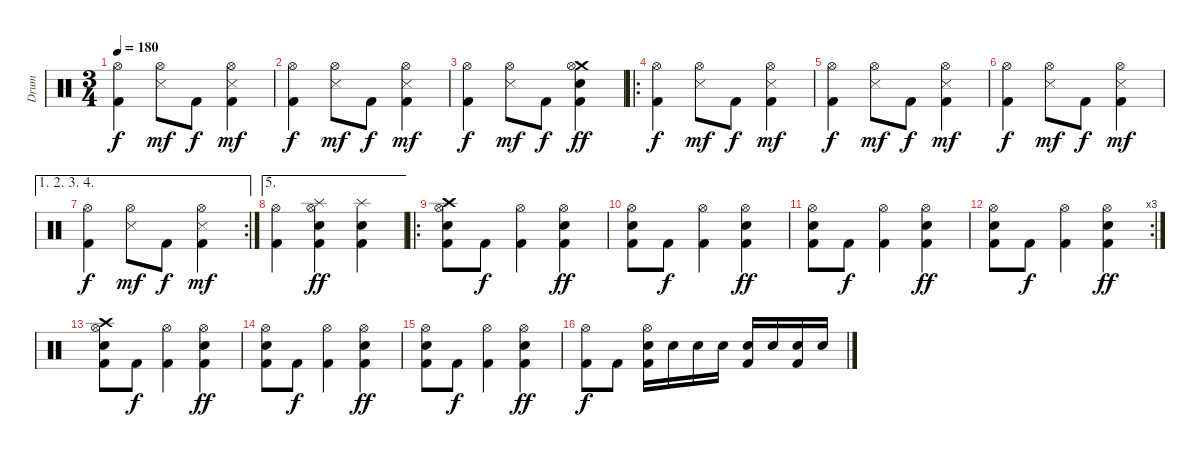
\track ("Drum" "Drum") {instrument percussion}
\staff {score}
\articulation defaults
\ts (3 4)
\tempo 180
\clef neutral
\ks c
("Hi-Hat (open)" "Kick (hit) 2").4{dy f} ("Hi-Hat (open)" "Snare (side stick) 3").8{dy mf} "Kick (hit) 2".8{dy f} ("Hi-Hat (open)" "Snare (side stick) 3" "Kick (hit) 2").4{dy mf} |
("Hi-Hat (open)" "Kick (hit) 2").4{dy f} ("Hi-Hat (open)" "Snare (side stick) 3").8{dy mf} "Kick (hit) 2".8{dy f} ("Hi-Hat (open)" "Snare (side stick) 3" "Kick (hit) 2").4{dy mf} |
("Hi-Hat (open)" "Kick (hit) 2").4{dy f} ("Hi-Hat (open)" "Snare (side stick) 3").8{dy mf} "Kick (hit) 2".8{dy f} ("Crash medium (hit)" "Hi-Hat (open)" "Electric Snare (hit)" "Kick (hit) 2").4{dy ff} |
\ro
("Hi-Hat (open)" "Kick (hit) 2").4{dy f} ("Hi-Hat (open)" "Snare (side stick) 3").8{dy mf} "Kick (hit) 2".8{dy f} ("Hi-Hat (open)" "Snare (side stick) 3" "Kick (hit) 2").4{dy mf} |
("Hi-Hat (open)" "Kick (hit) 2").4{dy f} ("Hi-Hat (open)" "Snare (side stick) 3").8{dy mf} "Kick (hit) 2".8{dy f} ("Hi-Hat (open)" "Snare (side stick) 3" "Kick (hit) 2").4{dy mf} |
("Hi-Hat (open)" "Kick (hit) 2").4{dy f} ("Hi-Hat (open)" "Snare (side stick) 3").8{dy mf} "Kick (hit) 2".8{dy f} ("Hi-Hat (open)" "Snare (side stick) 3" "Kick (hit) 2").4{dy mf} |
\ae (1 2 3 4)
\rc 2
("Hi-Hat (open)" "Kick (hit) 2").4{dy f} ("Hi-Hat (open)" "Snare (side stick) 3").8{dy mf} "Kick (hit) 2".8{dy f} ("Hi-Hat (open)" "Snare (side stick) 3" "Kick (hit) 2").4{dy mf} |
\ae 5
("Hi-Hat (open)" "Kick (hit) 2").4 ("Splash (hit)" "Hi-Hat (open)" "Electric Snare (hit)" "Kick (hit) 2").4{dy ff} ("Splash (hit)" "Electric Snare (hit)" "Kick (hit) 2").4 |
\ro
("Crash high (hit)" "Hi-Hat (open)" "Electric Snare (hit)" "Kick (hit) 2").8 "Kick (hit) 2".8{dy f} ("Hi-Hat (open)" "Kick (hit) 2").4 ("Hi-Hat (open)" "Electric Snare (hit)" "Kick (hit) 2").4{dy ff} |
("Hi-Hat (open)" "Electric Snare (hit)" "Kick (hit) 2").8 "Kick (hit) 2".8{dy f} ("Hi-Hat (open)" "Kick (hit) 2").4 ("Hi-Hat (open)" "Electric Snare (hit)" "Kick (hit) 2").4{dy ff} |
("Hi-Hat (open)" "Electric Snare (hit)" "Kick (hit) 2").8 "Kick (hit) 2".8{dy f} ("Hi-Hat (open)" "Kick (hit) 2").4 ("Hi-Hat (open)" "Electric Snare (hit)" "Kick (hit) 2").4{dy ff} |
\rc 3
("Hi-Hat (open)" "Electric Snare (hit)" "Kick (hit) 2").8 "Kick (hit) 2".8{dy f} ("Hi-Hat (open)" "Kick (hit) 2").4 ("Hi-Hat (open)" "Electric Snare (hit)" "Kick (hit) 2").4{dy ff} |
("Crash high (hit)" "Hi-Hat (open)" "Electric Snare (hit)" "Kick (hit) 2").8 "Kick (hit) 2".8{dy f} ("Hi-Hat (open)" "Kick (hit) 2").4 ("Hi-Hat (open)" "Electric Snare (hit)" "Kick (hit) 2").4{dy ff} |
("Hi-Hat (open)" "Electric Snare (hit)" "Kick (hit) 2").8 "Kick (hit) 2".8{dy f} ("Hi-Hat (open)" "Kick (hit) 2").4 ("Hi-Hat (open)" "Electric Snare (hit)" "Kick (hit) 2").4{dy ff} |
("Hi-Hat (open)" "Electric Snare (hit)" "Kick (hit) 2").8 "Kick (hit) 2".8{dy f} ("Hi-Hat (open)" "Kick (hit) 2").4 ("Hi-Hat (open)" "Electric Snare (hit)" "Kick (hit) 2").4{dy ff} |
("Hi-Hat (open)" "Kick (hit) 2").8{dy f} "Kick (hit) 2".8 ("Hi-Hat (open)" "Electric Snare (hit)" "Kick (hit) 2").16 "Electric Snare (hit)".16 "Electric Snare (hit)".16 "Electric Snare (hit)".16 ("Electric Snare (hit)" "Kick (hit) 2").16 "Electric Snare (hit)".16 ("Electric Snare (hit)" "Kick (hit) 2").16 "Electric Snare (hit)".16
